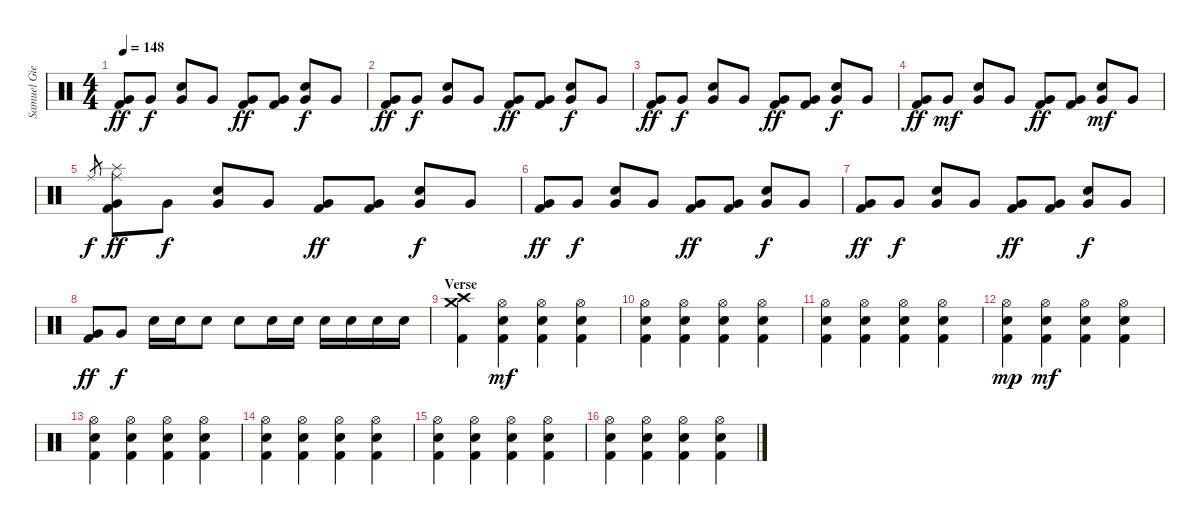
\track ("Samuel Giers - Drum" "Samuel Gie") {instrument percussion}
\staff {score}
\articulation defaults
\ts (4 4)
\tempo 148
\clef neutral
\ks c
("Very Low Tom (hit)" "Kick (hit) 2").8{dy ff} "Very Low Tom (hit)".8{dy f} ("Snare (hit) 2" "Very Low Tom (hit)").8 "Very Low Tom (hit)".8 ("Very Low Tom (hit)" "Kick (hit) 2").8{dy ff} ("Very Low Tom (hit)" "Kick (hit) 2").8 ("Snare (hit) 2" "Very Low Tom (hit)").8{dy f} "Very Low Tom (hit)".8 |
("Very Low Tom (hit)" "Kick (hit) 2").8{dy ff} "Very Low Tom (hit)".8{dy f} ("Snare (hit) 2" "Very Low Tom (hit)").8 "Very Low Tom (hit)".8 ("Very Low Tom (hit)" "Kick (hit) 2").8{dy ff} ("Very Low Tom (hit)" "Kick (hit) 2").8 ("Snare (hit) 2" "Very Low Tom (hit)").8{dy f} "Very Low Tom (hit)".8 |
("Very Low Tom (hit)" "Kick (hit) 2").8{dy ff} "Very Low Tom (hit)".8{dy f} ("Snare (hit) 2" "Very Low Tom (hit)").8 "Very Low Tom (hit)".8 ("Very Low Tom (hit)" "Kick (hit) 2").8{dy ff} ("Very Low Tom (hit)" "Kick (hit) 2").8 ("Snare (hit) 2" "Very Low Tom (hit)").8{dy f} "Very Low Tom (hit)".8 |
("Very Low Tom (hit)" "Kick (hit) 2").8{dy ff} "Very Low Tom (hit)".8{dy mf} ("Snare (hit) 2" "Very Low Tom (hit)").8 "Very Low Tom (hit)".8 ("Very Low Tom (hit)" "Kick (hit) 2").8{dy ff} ("Very Low Tom (hit)" "Kick (hit) 2").8 ("Snare (hit) 2" "Very Low Tom (hit)").8{dy mf} "Very Low Tom (hit)".8 |
"Ride (middle)".8{gr dy f} ("Ride (middle)" "Splash (hit)" "Very Low Tom (hit)" "Kick (hit) 2").8{dy ff} "Very Low Tom (hit)".8{dy f} ("Snare (hit) 2" "Very Low Tom (hit)").8 "Very Low Tom (hit)".8 ("Very Low Tom (hit)" "Kick (hit) 2").8{dy ff} ("Very Low Tom (hit)" "Kick (hit) 2").8 ("Snare (hit) 2" "Very Low Tom (hit)").8{dy f} "Very Low Tom (hit)".8 |
("Very Low Tom (hit)" "Kick (hit) 2").8{dy ff} "Very Low Tom (hit)".8{dy f} ("Snare (hit) 2" "Very Low Tom (hit)").8 "Very Low Tom (hit)".8 ("Very Low Tom (hit)" "Kick (hit) 2").8{dy ff} ("Very Low Tom (hit)" "Kick (hit) 2").8 ("Snare (hit) 2" "Very Low Tom (hit)").8{dy f} "Very Low Tom (hit)".8 |
("Very Low Tom (hit)" "Kick (hit) 2").8{dy ff} "Very Low Tom (hit)".8{dy f} ("Snare (hit) 2" "Very Low Tom (hit)").8 "Very Low Tom (hit)".8 ("Very Low Tom (hit)" "Kick (hit) 2").8{dy ff} ("Very Low Tom (hit)" "Kick (hit) 2").8 ("Snare (hit) 2" "Very Low Tom (hit)").8{dy f} "Very Low Tom (hit)".8 |
("Very Low Tom (hit)" "Kick (hit) 2").8{dy ff} "Very Low Tom (hit)".8{dy f} "Snare (hit) 2".16 "Snare (hit) 2".16 "Snare (hit) 2".8 "Snare (hit) 2".8 "Snare (hit) 2".16 "Snare (hit) 2".16 "Snare (hit) 2".16 "Snare (hit) 2".16 "Snare (hit) 2".16 "Snare (hit) 2".16 |
\section ("" "Verse")
("Crash medium (hit)" "Crash high (hit)" "Kick (hit) 2").4 ("Hi-Hat (open)" "Snare (hit) 2" "Kick (hit) 2").4{dy mf} ("Hi-Hat (open)" "Snare (hit) 2" "Kick (hit) 2").4 ("Hi-Hat (open)" "Snare (hit) 2" "Kick (hit) 2").4 |
("Hi-Hat (open)" "Snare (hit) 2" "Kick (hit) 2").4 ("Hi-Hat (open)" "Snare (hit) 2" "Kick (hit) 2").4 ("Hi-Hat (open)" "Snare (hit) 2" "Kick (hit) 2").4 ("Hi-Hat (open)" "Snare (hit) 2" "Kick (hit) 2").4 |
("Hi-Hat (open)" "Snare (hit) 2" "Kick (hit) 2").4 ("Hi-Hat (open)" "Snare (hit) 2" "Kick (hit) 2").4 ("Hi-Hat (open)" "Snare (hit) 2" "Kick (hit) 2").4 ("Hi-Hat (open)" "Snare (hit) 2" "Kick (hit) 2").4 |
("Hi-Hat (open)" "Snare (hit) 2" "Kick (hit) 2").4{dy mp} ("Hi-Hat (open)" "Snare (hit) 2" "Kick (hit) 2").4{dy mf} ("Hi-Hat (open)" "Snare (hit) 2" "Kick (hit) 2").4 ("Hi-Hat (open)" "Snare (hit) 2" "Kick (hit) 2").4 |
("Hi-Hat (open)" "Snare (hit) 2" "Kick (hit) 2").4 ("Hi-Hat (open)" "Snare (hit) 2" "Kick (hit) 2").4 ("Hi-Hat (open)" "Snare (hit) 2" "Kick (hit) 2").4 ("Hi-Hat (open)" "Snare (hit) 2" "Kick (hit) 2").4 |
("Hi-Hat (open)" "Snare (hit) 2" "Kick (hit) 2").4 ("Hi-Hat (open)" "Snare (hit) 2" "Kick (hit) 2").4 ("Hi-Hat (open)" "Snare (hit) 2" "Kick (hit) 2").4 ("Hi-Hat (open)" "Snare (hit) 2" "Kick (hit) 2").4 |
("Hi-Hat (open)" "Snare (hit) 2" "Kick (hit) 2").4 ("Hi-Hat (open)" "Snare (hit) 2" "Kick (hit) 2").4 ("Hi-Hat (open)" "Snare (hit) 2" "Kick (hit) 2").4 ("Hi-Hat (open)" "Snare (hit) 2" "Kick (hit) 2").4 |
("Hi-Hat (open)" "Snare (hit) 2" "Kick (hit) 2").4 ("Hi-Hat (open)" "Snare (hit) 2" "Kick (hit) 2").4 ("Hi-Hat (open)" "Snare (hit) 2" "Kick (hit) 2").4 ("Hi-Hat (open)" "Snare (hit) 2" "Kick (hit) 2").4
